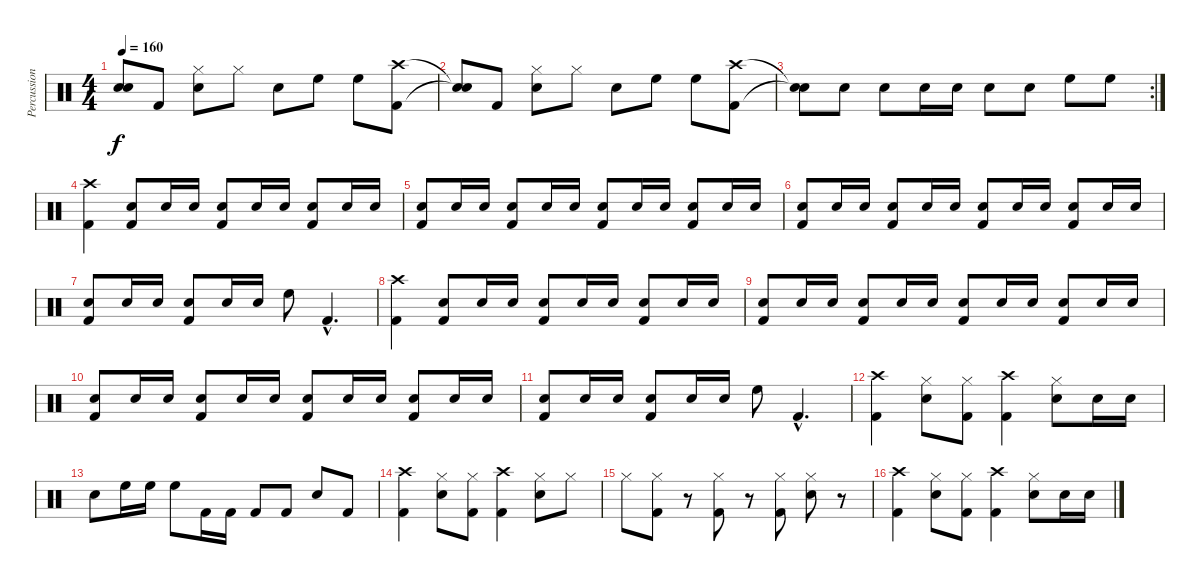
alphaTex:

\track ("Percussion" "Percussion") {instrument percussion}
\staff {score}
\articulation defaults
\ts (4 4)
\tempo 160
\clef neutral
\ks c
("Snare (hit)"{t} "Snare (hit)"{t}).8{dy f} "Kick (hit) 2".8 ("Hi-Hat (closed)" "Snare (hit) 2").8 "Hi-Hat (closed)".8 "Snare (hit) 2".8 "High Floor Tom (hit)".8 "High Floor Tom (hit)".8 ("Crash high (hit)" "Kick (hit) 2").8 |
("Snare (hit)"{t} "Snare (hit)"{t}).8 "Kick (hit) 2".8 ("Hi-Hat (closed)" "Snare (hit) 2").8 "Hi-Hat (closed)".8 "Snare (hit) 2".8 "High Floor Tom (hit)".8 "High Floor Tom (hit)".8 ("Crash high (hit)" "Kick (hit) 2").8 |
\rc 2
("Snare (hit)"{t} "Snare (hit)"{t}).8 "Snare (hit) 2".8 "Snare (hit) 2".8 "Snare (hit) 2".16 "Snare (hit) 2".16 "Snare (hit) 2".8 "Snare (hit) 2".8 "High Floor Tom (hit)".8 "High Floor Tom (hit)".8 |
("Crash high (hit)" "Kick (hit) 2").4 ("Snare (hit) 2" "Kick (hit) 2").8 "Snare (hit) 2".16 "Snare (hit) 2".16 ("Snare (hit) 2" "Kick (hit) 2").8 "Snare (hit) 2".16 "Snare (hit) 2".16 ("Snare (hit) 2" "Kick (hit) 2").8 "Snare (hit) 2".16 "Snare (hit) 2".16 |
("Snare (hit) 2" "Kick (hit) 2").8 "Snare (hit) 2".16 "Snare (hit) 2".16 ("Snare (hit) 2" "Kick (hit) 2").8 "Snare (hit) 2".16 "Snare (hit) 2".16 ("Snare (hit) 2" "Kick (hit) 2").8 "Snare (hit) 2".16 "Snare (hit) 2".16 ("Snare (hit) 2" "Kick (hit) 2").8 "Snare (hit) 2".16 "Snare (hit) 2".16 |
("Snare (hit) 2" "Kick (hit) 2").8 "Snare (hit) 2".16 "Snare (hit) 2".16 ("Snare (hit) 2" "Kick (hit) 2").8 "Snare (hit) 2".16 "Snare (hit) 2".16 ("Snare (hit) 2" "Kick (hit) 2").8 "Snare (hit) 2".16 "Snare (hit) 2".16 ("Snare (hit) 2" "Kick (hit) 2").8 "Snare (hit) 2".16 "Snare (hit) 2".16 |
("Snare (hit) 2" "Kick (hit) 2").8 "Snare (hit) 2".16 "Snare (hit) 2".16 ("Snare (hit) 2" "Kick (hit) 2").8 "Snare (hit) 2".16 "Snare (hit) 2".16 "High Floor Tom (hit)".8 "Kick (hit) 2"{hac}.4{d} |
("Crash high (hit)" "Kick (hit) 2").4 ("Snare (hit) 2" "Kick (hit) 2").8 "Snare (hit) 2".16 "Snare (hit) 2".16 ("Snare (hit) 2" "Kick (hit) 2").8 "Snare (hit) 2".16 "Snare (hit) 2".16 ("Snare (hit) 2" "Kick (hit) 2").8 "Snare (hit) 2".16 "Snare (hit) 2".16 |
("Snare (hit) 2" "Kick (hit) 2").8 "Snare (hit) 2".16 "Snare (hit) 2".16 ("Snare (hit) 2" "Kick (hit) 2").8 "Snare (hit) 2".16 "Snare (hit) 2".16 ("Snare (hit) 2" "Kick (hit) 2").8 "Snare (hit) 2".16 "Snare (hit) 2".16 ("Snare (hit) 2" "Kick (hit) 2").8 "Snare (hit) 2".16 "Snare (hit) 2".16 |
("Snare (hit) 2" "Kick (hit) 2").8 "Snare (hit) 2".16 "Snare (hit) 2".16 ("Snare (hit) 2" "Kick (hit) 2").8 "Snare (hit) 2".16 "Snare (hit) 2".16 ("Snare (hit) 2" "Kick (hit) 2").8 "Snare (hit) 2".16 "Snare (hit) 2".16 ("Snare (hit) 2" "Kick (hit) 2").8 "Snare (hit) 2".16 "Snare (hit) 2".16 |
("Snare (hit) 2" "Kick (hit) 2").8 "Snare (hit) 2".16 "Snare (hit) 2".16 ("Snare (hit) 2" "Kick (hit) 2").8 "Snare (hit) 2".16 "Snare (hit) 2".16 "High Floor Tom (hit)".8 "Kick (hit) 2"{hac}.4{d} |
("Crash high (hit)" "Kick (hit) 2").4 ("Hi-Hat (closed)" "Snare (hit) 2").8 ("Hi-Hat (closed)" "Kick (hit) 2").8 ("Crash high (hit)" "Kick (hit) 2").4 ("Hi-Hat (closed)" "Snare (hit) 2").8 "Snare (hit) 2".16 "Snare (hit) 2".16 |
"Snare (hit) 2".8 "High Floor Tom (hit)".16 "High Floor Tom (hit)".16 "High Floor Tom (hit)".8 "Kick (hit) 2".16 "Kick (hit) 2".16 "Kick (hit) 2".8 "Kick (hit) 2".8 "Snare (hit) 2".8 "Kick (hit) 2".8 |
("Crash high (hit)" "Kick (hit) 2").4 ("Hi-Hat (closed)" "Snare (hit) 2").8 ("Hi-Hat (closed)" "Kick (hit) 2").8 ("Crash high (hit)" "Kick (hit) 2").4 ("Hi-Hat (closed)" "Snare (hit) 2").8 "Hi-Hat (closed)".8 |
"Hi-Hat (closed)".8 ("Hi-Hat (closed)" "Kick (hit) 2").8 r.8 ("Hi-Hat (closed)" "Kick (hit) 2").8 r.8 ("Hi-Hat (closed)" "Kick (hit) 2").8 ("Hi-Hat (closed)" "Snare (hit) 2").8 r.8 |
("Crash high (hit)" "Kick (hit) 2").4 ("Hi-Hat (closed)" "Snare (hit) 2").8 ("Hi-Hat (closed)" "Kick (hit) 2").8 ("Crash high (hit)" "Kick (hit) 2").4 ("Hi-Hat (closed)" "Snare (hit) 2").8 "Snare (hit) 2".16 "Snare (hit) 2".16
